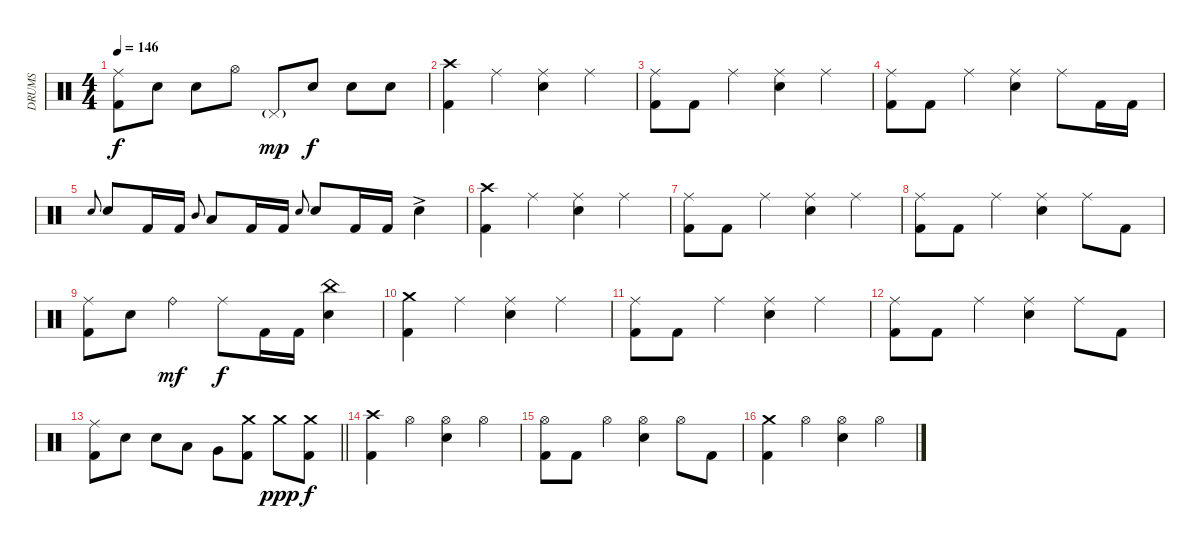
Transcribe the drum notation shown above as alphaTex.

\track ("DRUMS" "DRUMS") {instrument percussion}
\staff {score}
\articulation defaults
\ts (4 4)
\tempo 146
\clef neutral
\ks c
("Ride (middle)" "Kick (hit) 2").8{dy f} "Snare (hit) 2".8 "Snare (hit) 2".8 "Hi-Hat (open)".8 "Pedal Hi-Hat (hit)"{g}.8{dy mp} "Snare (hit) 2".8{dy f} "Snare (hit) 2".8 "Snare (hit) 2".8 |
("Crash high (hit)" "Kick (hit) 2").4 "Ride (middle)".4 ("Ride (middle)" "Snare (hit) 2").4 "Ride (middle)".4 |
("Ride (middle)" "Kick (hit) 2").8 "Kick (hit) 2".8 "Ride (middle)".4 ("Ride (middle)" "Snare (hit) 2").4 "Ride (middle)".4 |
("Ride (middle)" "Kick (hit) 2").8 "Kick (hit) 2".8 "Ride (middle)".4 ("Ride (middle)" "Snare (hit) 2").4 "Ride (middle)".8 "Kick (hit) 2".16 "Kick (hit) 2".16 |
"Snare (hit) 2".8{gr onbeat} "Snare (hit) 2".8 "Kick (hit) 2".16 "Kick (hit) 2".16 "Mid Tom (hit)".8{gr onbeat} "Low Tom (hit)".8 "Kick (hit) 2".16 "Kick (hit) 2".16 "Snare (hit) 2".8{gr onbeat} "Snare (hit) 2".8 "Kick (hit) 2".16 "Kick (hit) 2".16 "Snare (hit) 2"{ac}.4 |
("Crash high (hit)" "Kick (hit) 2").4 "Ride (middle)".4 ("Ride (middle)" "Snare (hit) 2").4 "Ride (middle)".4 |
("Ride (middle)" "Kick (hit) 2").8 "Kick (hit) 2".8 "Ride (middle)".4 ("Ride (middle)" "Snare (hit) 2").4 "Ride (middle)".4 |
("Ride (middle)" "Kick (hit) 2").8 "Kick (hit) 2".8 "Ride (middle)".4 ("Ride (middle)" "Snare (hit) 2").4 "Ride (middle)".8 "Kick (hit) 2".8 |
("Ride (middle)" "Kick (hit) 2").8 "Snare (hit) 2".8 "Ride (bell)".4{dy mf} "Ride (middle)".8{dy f} "Kick (hit) 2".16 "Kick (hit) 2".16 ("China (hit)" "Snare (hit) 2").4 |
("Crash medium (hit)" "Kick (hit) 2").4 "Ride (middle)".4 ("Ride (middle)" "Snare (hit) 2").4 "Ride (middle)".4 |
("Ride (middle)" "Kick (hit) 2").8 "Kick (hit) 2".8 "Ride (middle)".4 ("Ride (middle)" "Snare (hit) 2").4 "Ride (middle)".4 |
("Ride (middle)" "Kick (hit) 2").8 "Kick (hit) 2".8 "Ride (middle)".4 ("Ride (middle)" "Snare (hit) 2").4 "Ride (middle)".8 "Kick (hit) 2".8 |
\barLineRight lightlight
("Ride (middle)" "Kick (hit) 2").8 "Snare (hit) 2".8 "Snare (hit) 2".8 "Low Tom (hit)".8 "Very Low Tom (hit)".8 ("Crash medium (hit)" "Kick (hit) 2").8 "Crash medium (hit)".8{dy ppp} ("Crash medium (hit)" "Kick (hit) 2").8{dy f} |
("Crash high (hit)" "Kick (hit) 2").4 "Hi-Hat (open)".4 ("Hi-Hat (open)" "Snare (hit) 2").4 "Hi-Hat (open)".4 |
("Hi-Hat (open)" "Kick (hit) 2").8 "Kick (hit) 2".8 "Hi-Hat (open)".4 ("Hi-Hat (open)" "Snare (hit) 2").4 "Hi-Hat (open)".8 "Kick (hit) 2".8 |
("Crash medium (hit)" "Kick (hit) 2").4 "Hi-Hat (open)".4 ("Hi-Hat (open)" "Snare (hit) 2").4 "Hi-Hat (open)".4
